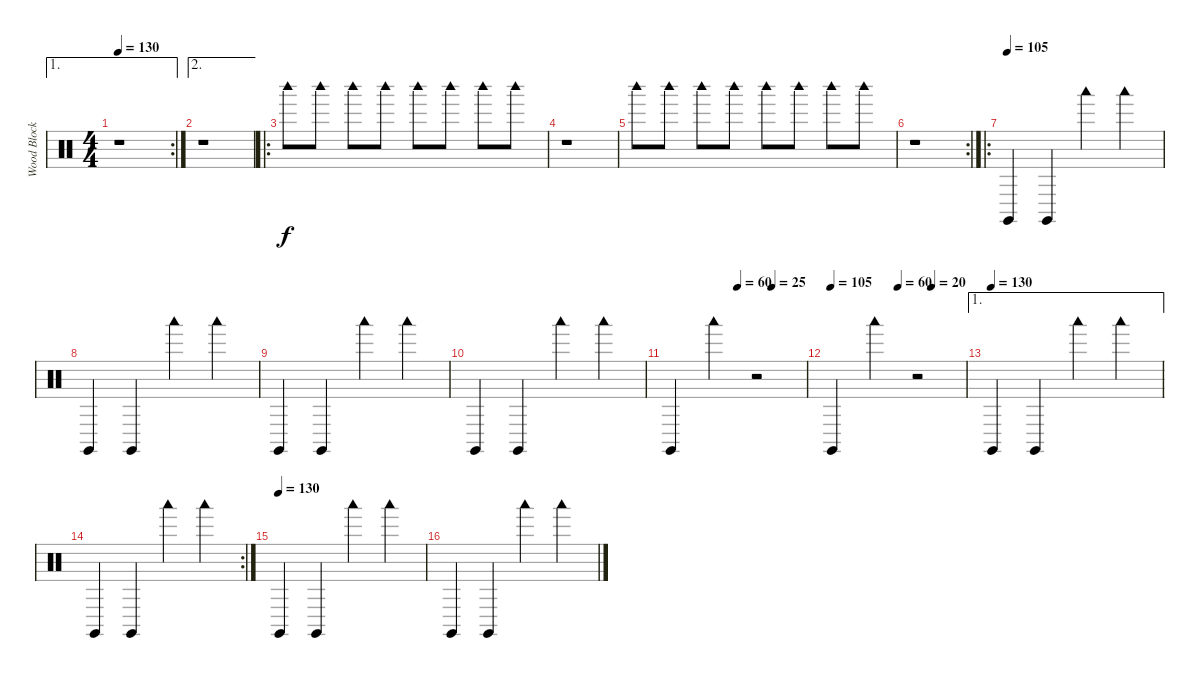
\track ("Wood Blocks" "Wood Block") {instrument percussion}
\staff {score}
\articulation defaults
\ae 1
\rc 2
\ts (4 4)
\tempo 130
\clef neutral
\ks c
r.1{dy f} |
\ae 2
r.1 |
\ro "Woodblock high (hit)".8 "Woodblock high (hit)".8 "Woodblock high (hit)".8 "Woodblock high (hit)".8 "Woodblock high (hit)".8 "Woodblock high (hit)".8 "Woodblock high (hit)".8 "Woodblock high (hit)".8
|
r.1 |
"Woodblock high (hit)".8 "Woodblock high (hit)".8 "Woodblock high (hit)".8 "Woodblock high (hit)".8 "Woodblock high (hit)".8 "Woodblock high (hit)".8 "Woodblock high (hit)".8 "Woodblock high (hit)".8 |
\rc 2
r.1 |
\ro
\tempo (105)
"Claves (hit)".4 "Claves (hit)".4 "Woodblock low (hit)".4 "Woodblock low (hit)".4 |
"Claves (hit)".4 "Claves (hit)".4 "Woodblock low (hit)".4 "Woodblock low (hit)".4 |
"Claves (hit)".4 "Claves (hit)".4 "Woodblock low (hit)".4 "Woodblock low (hit)".4 |
"Claves (hit)".4 "Claves (hit)".4 "Woodblock low (hit)".4 "Woodblock low (hit)".4 |
\tempo (60 0.5)
\tempo (25 0.75)
"Claves (hit)".4 "Woodblock low (hit)".4 r.2 |
\tempo 105
\tempo (60 0.5)
\tempo (20 0.75)
"Claves (hit)".4 "Woodblock low (hit)".4 r.2 |
\ae 1
\tempo (130)
"Claves (hit)".4 "Claves (hit)".4 "Woodblock low (hit)".4 "Woodblock low (hit)".4 |
\rc 2 "Claves (hit)".4 "Claves (hit)".4 "Woodblock low (hit)".4 "Woodblock low (hit)".4
|
\tempo (130)
"Claves (hit)".4 "Claves (hit)".4 "Woodblock low (hit)".4 "Woodblock low (hit)".4 |
"Claves (hit)".4 "Claves (hit)".4 "Woodblock low (hit)".4 "Woodblock low (hit)".4
